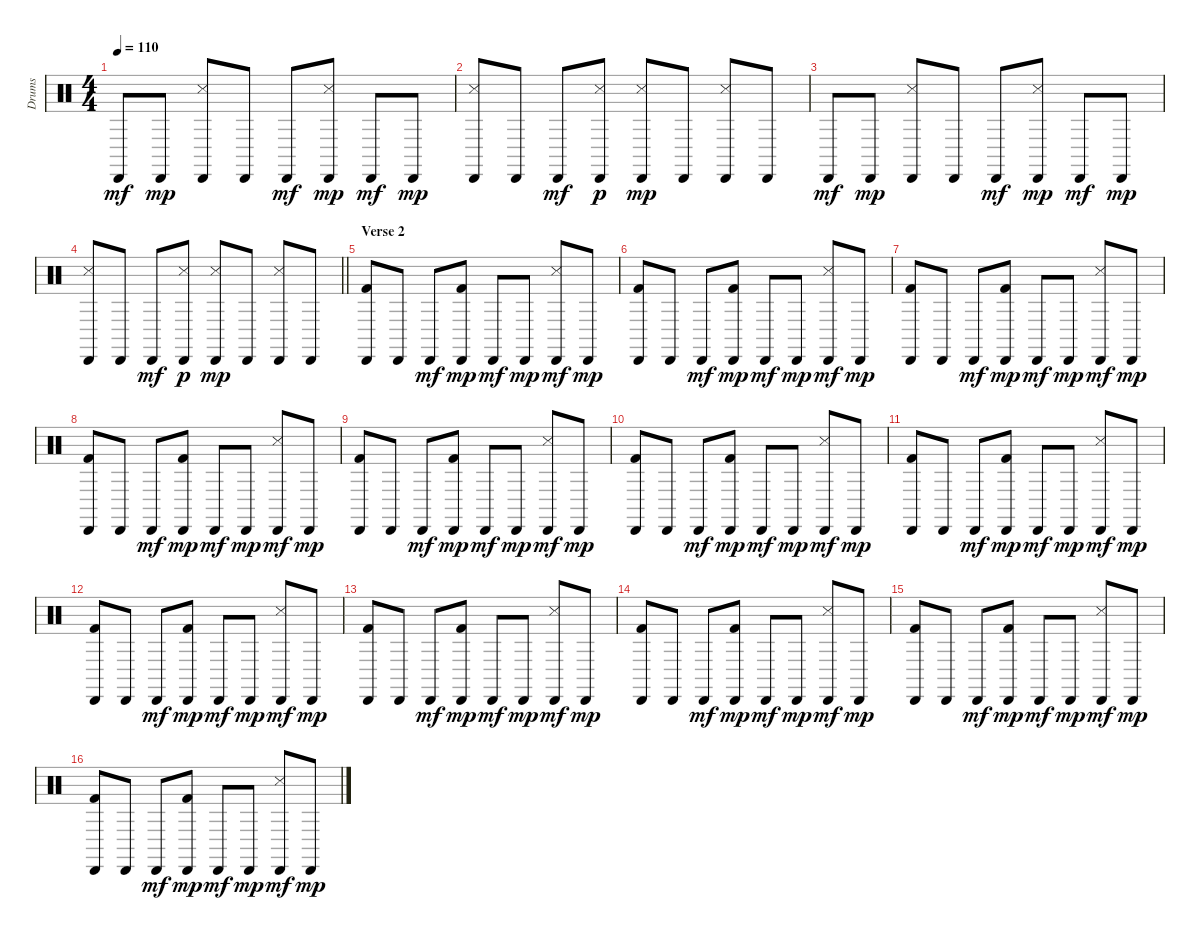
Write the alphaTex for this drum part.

\track ("Drums" "Drums") {instrument percussion}
\staff {score}
\articulation defaults
\ts (4 4)
\tempo 110
\clef neutral
\ks c "Cabasa (hit)".8{dy mf} "Cabasa (hit)".8{dy mp}
("Cabasa (hit)" "Snare (side stick) 3").8 "Cabasa (hit)".8 "Cabasa (hit)".8{dy mf} ("Cabasa (hit)" "Snare (side stick) 3").8{dy mp} "Cabasa (hit)".8{dy mf} "Cabasa (hit)".8{dy mp} |
("Cabasa (hit)" "Snare (side stick) 3").8 "Cabasa (hit)".8 "Cabasa (hit)".8{dy mf} ("Cabasa (hit)" "Snare (side stick) 3").8{dy p} ("Cabasa (hit)" "Snare (side stick) 3").8{dy mp} "Cabasa (hit)".8 ("Cabasa (hit)" "Snare (side stick) 3").8 "Cabasa (hit)".8 |
"Cabasa (hit)".8{dy mf} "Cabasa (hit)".8{dy mp} ("Cabasa (hit)" "Snare (side stick) 3").8 "Cabasa (hit)".8 "Cabasa (hit)".8{dy mf} ("Cabasa (hit)" "Snare (side stick) 3").8{dy mp} "Cabasa (hit)".8{dy mf} "Cabasa (hit)".8{dy mp} |
\barLineRight lightlight
("Cabasa (hit)" "Snare (side stick) 3").8 "Cabasa (hit)".8 "Cabasa (hit)".8{dy mf} ("Cabasa (hit)" "Snare (side stick) 3").8{dy p} ("Cabasa (hit)" "Snare (side stick) 3").8{dy mp} "Cabasa (hit)".8 ("Cabasa (hit)" "Snare (side stick) 3").8 "Cabasa (hit)".8 |
\section ("" "Verse 2")
("Cabasa (hit)" "Kick (hit) 2").8 "Cabasa (hit)".8 "Cabasa (hit)".8{dy mf} ("Cabasa (hit)" "Kick (hit) 2").8{dy mp} "Cabasa (hit)".8{dy mf} "Cabasa (hit)".8{dy mp} ("Cabasa (hit)" "Snare (side stick) 3").8{dy mf} "Cabasa (hit)".8{dy mp} |
("Cabasa (hit)" "Kick (hit) 2").8 "Cabasa (hit)".8 "Cabasa (hit)".8{dy mf} ("Cabasa (hit)" "Kick (hit) 2").8{dy mp} "Cabasa (hit)".8{dy mf} "Cabasa (hit)".8{dy mp} ("Cabasa (hit)" "Snare (side stick) 3").8{dy mf} "Cabasa (hit)".8{dy mp} |
("Cabasa (hit)" "Kick (hit) 2").8 "Cabasa (hit)".8 "Cabasa (hit)".8{dy mf} ("Cabasa (hit)" "Kick (hit) 2").8{dy mp} "Cabasa (hit)".8{dy mf} "Cabasa (hit)".8{dy mp} ("Cabasa (hit)" "Snare (side stick) 3").8{dy mf} "Cabasa (hit)".8{dy mp} |
("Cabasa (hit)" "Kick (hit) 2").8 "Cabasa (hit)".8 "Cabasa (hit)".8{dy mf} ("Cabasa (hit)" "Kick (hit) 2").8{dy mp} "Cabasa (hit)".8{dy mf} "Cabasa (hit)".8{dy mp} ("Cabasa (hit)" "Snare (side stick) 3").8{dy mf} "Cabasa (hit)".8{dy mp} |
("Cabasa (hit)" "Kick (hit) 2").8 "Cabasa (hit)".8 "Cabasa (hit)".8{dy mf} ("Cabasa (hit)" "Kick (hit) 2").8{dy mp} "Cabasa (hit)".8{dy mf} "Cabasa (hit)".8{dy mp} ("Cabasa (hit)" "Snare (side stick) 3").8{dy mf} "Cabasa (hit)".8{dy mp} |
("Cabasa (hit)" "Kick (hit) 2").8 "Cabasa (hit)".8 "Cabasa (hit)".8{dy mf} ("Cabasa (hit)" "Kick (hit) 2").8{dy mp} "Cabasa (hit)".8{dy mf} "Cabasa (hit)".8{dy mp} ("Cabasa (hit)" "Snare (side stick) 3").8{dy mf} "Cabasa (hit)".8{dy mp} |
("Cabasa (hit)" "Kick (hit) 2").8 "Cabasa (hit)".8 "Cabasa (hit)".8{dy mf} ("Cabasa (hit)" "Kick (hit) 2").8{dy mp} "Cabasa (hit)".8{dy mf} "Cabasa (hit)".8{dy mp} ("Cabasa (hit)" "Snare (side stick) 3").8{dy mf} "Cabasa (hit)".8{dy mp} |
("Cabasa (hit)" "Kick (hit) 2").8 "Cabasa (hit)".8 "Cabasa (hit)".8{dy mf} ("Cabasa (hit)" "Kick (hit) 2").8{dy mp} "Cabasa (hit)".8{dy mf} "Cabasa (hit)".8{dy mp} ("Cabasa (hit)" "Snare (side stick) 3").8{dy mf} "Cabasa (hit)".8{dy mp} |
("Cabasa (hit)" "Kick (hit) 2").8 "Cabasa (hit)".8 "Cabasa (hit)".8{dy mf} ("Cabasa (hit)" "Kick (hit) 2").8{dy mp} "Cabasa (hit)".8{dy mf} "Cabasa (hit)".8{dy mp} ("Cabasa (hit)" "Snare (side stick) 3").8{dy mf} "Cabasa (hit)".8{dy mp} |
("Cabasa (hit)" "Kick (hit) 2").8 "Cabasa (hit)".8 "Cabasa (hit)".8{dy mf} ("Cabasa (hit)" "Kick (hit) 2").8{dy mp} "Cabasa (hit)".8{dy mf} "Cabasa (hit)".8{dy mp} ("Cabasa (hit)" "Snare (side stick) 3").8{dy mf} "Cabasa (hit)".8{dy mp} |
("Cabasa (hit)" "Kick (hit) 2").8 "Cabasa (hit)".8 "Cabasa (hit)".8{dy mf} ("Cabasa (hit)" "Kick (hit) 2").8{dy mp} "Cabasa (hit)".8{dy mf} "Cabasa (hit)".8{dy mp} ("Cabasa (hit)" "Snare (side stick) 3").8{dy mf} "Cabasa (hit)".8{dy mp} |
("Cabasa (hit)" "Kick (hit) 2").8 "Cabasa (hit)".8 "Cabasa (hit)".8{dy mf} ("Cabasa (hit)" "Kick (hit) 2").8{dy mp} "Cabasa (hit)".8{dy mf} "Cabasa (hit)".8{dy mp} ("Cabasa (hit)" "Snare (side stick) 3").8{dy mf} "Cabasa (hit)".8{dy mp}
